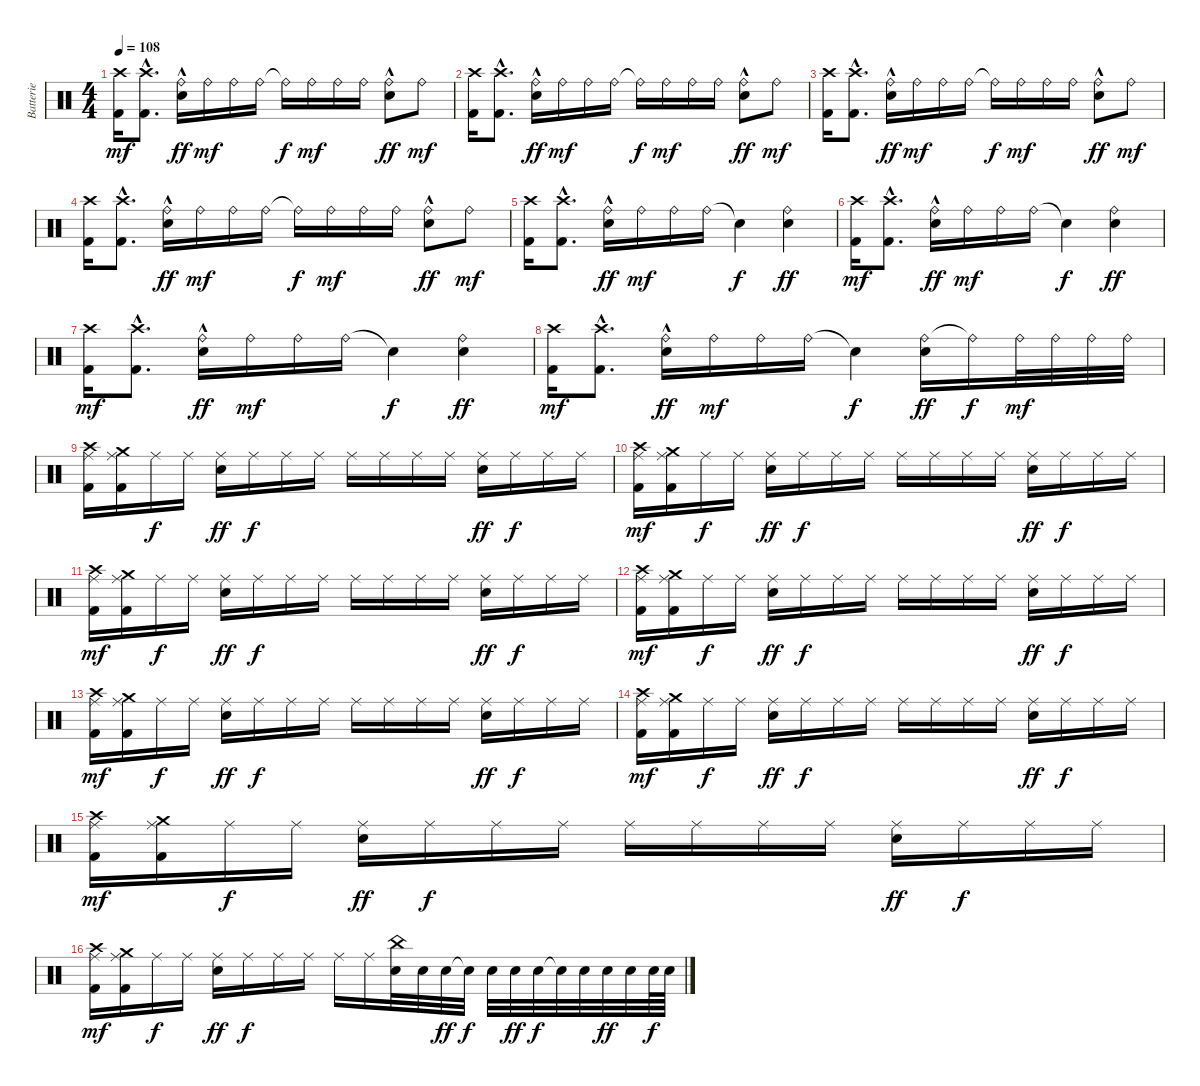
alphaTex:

\track ("Batterie" "Batterie") {instrument percussion}
\staff {score}
\articulation defaults
\ts (4 4)
\tempo 108
\clef neutral
\ks c
("Crash high (hit)" "Kick (hit) 2").16{dy mf} ("Crash high (hit)"{hac} "Kick (hit) 2"{hac}).8{d} ("Ride (bell)" "Snare (hit) 2"{hac}).16{dy ff} "Ride (bell)".16{dy mf} "Ride (bell)".16 "Ride (bell)".16 "Ride (bell)"{t}.16{dy f} "Ride (bell)".16{dy mf} "Ride (bell)".16 "Ride (bell)".16 ("Ride (bell)" "Snare (hit) 2"{hac}).8{dy ff} "Ride (bell)".8{dy mf} |
("Crash high (hit)" "Kick (hit) 2").16 ("Crash high (hit)"{hac} "Kick (hit) 2"{hac}).8{d} ("Ride (bell)" "Snare (hit) 2"{hac}).16{dy ff} "Ride (bell)".16{dy mf} "Ride (bell)".16 "Ride (bell)".16 "Ride (bell)"{t}.16{dy f} "Ride (bell)".16{dy mf} "Ride (bell)".16 "Ride (bell)".16 ("Ride (bell)" "Snare (hit) 2"{hac}).8{dy ff} "Ride (bell)".8{dy mf} |
("Crash high (hit)" "Kick (hit) 2").16 ("Crash high (hit)"{hac} "Kick (hit) 2"{hac}).8{d} ("Ride (bell)" "Snare (hit) 2"{hac}).16{dy ff} "Ride (bell)".16{dy mf} "Ride (bell)".16 "Ride (bell)".16 "Ride (bell)"{t}.16{dy f} "Ride (bell)".16{dy mf} "Ride (bell)".16 "Ride (bell)".16 ("Ride (bell)" "Snare (hit) 2"{hac}).8{dy ff} "Ride (bell)".8{dy mf} |
("Crash high (hit)" "Kick (hit) 2").16 ("Crash high (hit)"{hac} "Kick (hit) 2"{hac}).8{d} ("Ride (bell)" "Snare (hit) 2"{hac}).16{dy ff} "Ride (bell)".16{dy mf} "Ride (bell)".16 "Ride (bell)".16 "Ride (bell)"{t}.16{dy f} "Ride (bell)".16{dy mf} "Ride (bell)".16 "Ride (bell)".16 ("Ride (bell)" "Snare (hit) 2"{hac}).8{dy ff} "Ride (bell)".8{dy mf} |
("Crash high (hit)" "Kick (hit) 2").16 ("Crash high (hit)"{hac} "Kick (hit) 2"{hac}).8{d} ("Ride (bell)" "Snare (hit) 2"{hac}).16{dy ff} "Ride (bell)".16{dy mf} "Ride (bell)".16 "Ride (bell)".16 "Snare (hit)"{t}.4{dy f} ("Ride (bell)" "Snare (hit) 2").4{dy ff} |
("Crash high (hit)" "Kick (hit) 2").16{dy mf} ("Crash high (hit)"{hac} "Kick (hit) 2"{hac}).8{d} ("Ride (bell)" "Snare (hit) 2"{hac}).16{dy ff} "Ride (bell)".16{dy mf} "Ride (bell)".16 "Ride (bell)".16 "Snare (hit)"{t}.4{dy f} ("Ride (bell)" "Snare (hit) 2").4{dy ff} |
("Crash high (hit)" "Kick (hit) 2").16{dy mf} ("Crash high (hit)"{hac} "Kick (hit) 2"{hac}).8{d} ("Ride (bell)" "Snare (hit) 2"{hac}).16{dy ff} "Ride (bell)".16{dy mf} "Ride (bell)".16 "Ride (bell)".16 "Snare (hit)"{t}.4{dy f} ("Ride (bell)" "Snare (hit) 2").4{dy ff} |
("Crash high (hit)" "Kick (hit) 2").16{dy mf} ("Crash high (hit)"{hac} "Kick (hit) 2"{hac}).8{d} ("Ride (bell)" "Snare (hit) 2"{hac}).16{dy ff} "Ride (bell)".16{dy mf} "Ride (bell)".16 "Ride (bell)".16 "Snare (hit)"{t}.4{dy f} ("Ride (bell)" "Snare (hit) 2").16{dy ff} "Ride (bell)"{t}.16{dy f} "Ride (bell)".32{dy mf} "Ride (bell)".32 "Ride (bell)".32 "Ride (bell)".32 |
("Crash high (hit)" "Ride (middle)" "Kick (hit) 2").16 ("Crash medium (hit)" "Ride (middle)" "Kick (hit) 2").16 "Ride (middle)".16{dy f} "Ride (middle)".16 ("Ride (middle)" "Snare (hit) 2").16{dy ff} "Ride (middle)".16{dy f} "Ride (middle)".16 "Ride (middle)".16 "Ride (middle)".16 "Ride (middle)".16 "Ride (middle)".16 "Ride (middle)".16 ("Ride (middle)" "Snare (hit) 2").16{dy ff} "Ride (middle)".16{dy f} "Ride (middle)".16 "Ride (middle)".16 |
("Crash high (hit)" "Ride (middle)" "Kick (hit) 2").16{dy mf} ("Crash medium (hit)" "Ride (middle)" "Kick (hit) 2").16 "Ride (middle)".16{dy f} "Ride (middle)".16 ("Ride (middle)" "Snare (hit) 2").16{dy ff} "Ride (middle)".16{dy f} "Ride (middle)".16 "Ride (middle)".16 "Ride (middle)".16 "Ride (middle)".16 "Ride (middle)".16 "Ride (middle)".16 ("Ride (middle)" "Snare (hit) 2").16{dy ff} "Ride (middle)".16{dy f} "Ride (middle)".16 "Ride (middle)".16 |
("Crash high (hit)" "Ride (middle)" "Kick (hit) 2").16{dy mf} ("Crash medium (hit)" "Ride (middle)" "Kick (hit) 2").16 "Ride (middle)".16{dy f} "Ride (middle)".16 ("Ride (middle)" "Snare (hit) 2").16{dy ff} "Ride (middle)".16{dy f} "Ride (middle)".16 "Ride (middle)".16 "Ride (middle)".16 "Ride (middle)".16 "Ride (middle)".16 "Ride (middle)".16 ("Ride (middle)" "Snare (hit) 2").16{dy ff} "Ride (middle)".16{dy f} "Ride (middle)".16 "Ride (middle)".16 |
("Crash high (hit)" "Ride (middle)" "Kick (hit) 2").16{dy mf} ("Crash medium (hit)" "Ride (middle)" "Kick (hit) 2").16 "Ride (middle)".16{dy f} "Ride (middle)".16 ("Ride (middle)" "Snare (hit) 2").16{dy ff} "Ride (middle)".16{dy f} "Ride (middle)".16 "Ride (middle)".16 "Ride (middle)".16 "Ride (middle)".16 "Ride (middle)".16 "Ride (middle)".16 ("Ride (middle)" "Snare (hit) 2").16{dy ff} "Ride (middle)".16{dy f} "Ride (middle)".16 "Ride (middle)".16 |
("Crash high (hit)" "Ride (middle)" "Kick (hit) 2").16{dy mf} ("Crash medium (hit)" "Ride (middle)" "Kick (hit) 2").16 "Ride (middle)".16{dy f} "Ride (middle)".16 ("Ride (middle)" "Snare (hit) 2").16{dy ff} "Ride (middle)".16{dy f} "Ride (middle)".16 "Ride (middle)".16 "Ride (middle)".16 "Ride (middle)".16 "Ride (middle)".16 "Ride (middle)".16 ("Ride (middle)" "Snare (hit) 2").16{dy ff} "Ride (middle)".16{dy f} "Ride (middle)".16 "Ride (middle)".16 |
("Crash high (hit)" "Ride (middle)" "Kick (hit) 2").16{dy mf} ("Crash medium (hit)" "Ride (middle)" "Kick (hit) 2").16 "Ride (middle)".16{dy f} "Ride (middle)".16 ("Ride (middle)" "Snare (hit) 2").16{dy ff} "Ride (middle)".16{dy f} "Ride (middle)".16 "Ride (middle)".16 "Ride (middle)".16 "Ride (middle)".16 "Ride (middle)".16 "Ride (middle)".16 ("Ride (middle)" "Snare (hit) 2").16{dy ff} "Ride (middle)".16{dy f} "Ride (middle)".16 "Ride (middle)".16 |
("Crash high (hit)" "Ride (middle)" "Kick (hit) 2").16{dy mf} ("Crash medium (hit)" "Ride (middle)" "Kick (hit) 2").16 "Ride (middle)".16{dy f} "Ride (middle)".16 ("Ride (middle)" "Snare (hit) 2").16{dy ff} "Ride (middle)".16{dy f} "Ride (middle)".16 "Ride (middle)".16 "Ride (middle)".16 "Ride (middle)".16 "Ride (middle)".16 "Ride (middle)".16 ("Ride (middle)" "Snare (hit) 2").16{dy ff} "Ride (middle)".16{dy f} "Ride (middle)".16 "Ride (middle)".16 |
("Crash high (hit)" "Ride (middle)" "Kick (hit) 2").16{dy mf} ("Crash medium (hit)" "Ride (middle)" "Kick (hit) 2").16 "Ride (middle)".16{dy f} "Ride (middle)".16 ("Ride (middle)" "Snare (hit) 2").16{dy ff} "Ride (middle)".16{dy f} "Ride (middle)".16 "Ride (middle)".16 "Ride (middle)".16 "Ride (middle)".16 ("China (hit)" "Snare (hit) 2").32 "Snare (hit) 2".32 "Snare (hit) 2".32{dy ff} "Snare (hit) 2"{t}.32{dy f} "Snare (hit) 2".32 "Snare (hit) 2".32{dy ff} "Snare (hit) 2".32{dy f} "Snare (hit) 2"{t}.32 "Snare (hit) 2".32 "Snare (hit) 2".32{dy ff} "Snare (hit) 2".32 "Snare (hit) 2".64{dy f} "Snare (hit) 2".64
